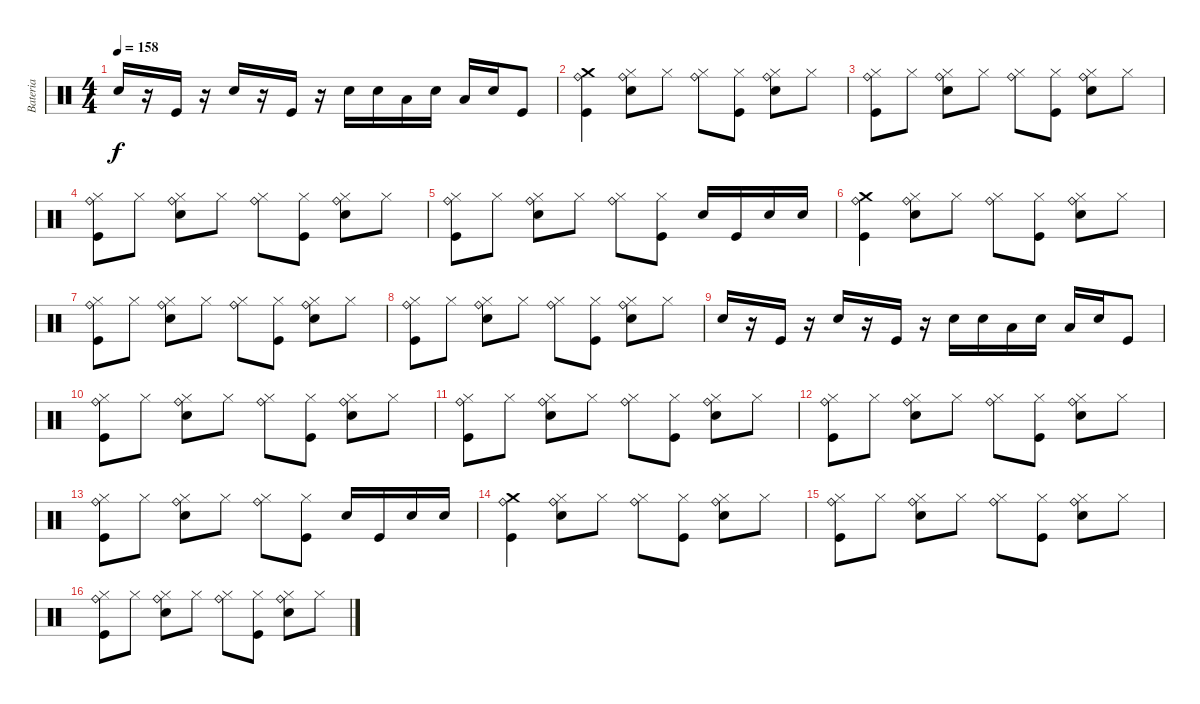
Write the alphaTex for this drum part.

\track ("Bateria" "Bateria") {instrument percussion}
\staff {score}
\articulation defaults
\ts (4 4)
\tempo 158
\clef neutral
\ks c "Electric Snare (hit)".16{dy f}
r.16 "Kick (hit)".16 r.16 "Electric Snare (hit)".16 r.16 "Kick (hit)".16 r.16 "Electric Snare (hit)".16 "Electric Snare (hit)".16 "Low Tom (hit)".16 "Electric Snare (hit)".16 "Low Tom (hit)".16 "Electric Snare (hit)".16 "Kick (hit)".8 |
("Kick (hit)" "Crash medium (hit)" "Ride (bell)").4 ("Electric Snare (hit)" "Hi-Hat (closed)" "Ride (bell)").8 "Hi-Hat (closed)".8 ("Hi-Hat (closed)" "Ride (bell)").8 ("Kick (hit)" "Hi-Hat (closed)").8 ("Electric Snare (hit)" "Hi-Hat (closed)" "Ride (bell)").8 "Hi-Hat (closed)".8 |
("Kick (hit)" "Hi-Hat (closed)" "Ride (bell)").8 "Hi-Hat (closed)".8 ("Electric Snare (hit)" "Hi-Hat (closed)" "Ride (bell)").8 "Hi-Hat (closed)".8 ("Hi-Hat (closed)" "Ride (bell)").8 ("Kick (hit)" "Hi-Hat (closed)").8 ("Electric Snare (hit)" "Hi-Hat (closed)" "Ride (bell)").8 "Hi-Hat (closed)".8 |
("Kick (hit)" "Hi-Hat (closed)" "Ride (bell)").8 "Hi-Hat (closed)".8 ("Electric Snare (hit)" "Hi-Hat (closed)" "Ride (bell)").8 "Hi-Hat (closed)".8 ("Hi-Hat (closed)" "Ride (bell)").8 ("Kick (hit)" "Hi-Hat (closed)").8 ("Electric Snare (hit)" "Hi-Hat (closed)" "Ride (bell)").8 "Hi-Hat (closed)".8 |
("Kick (hit)" "Hi-Hat (closed)" "Ride (bell)").8 "Hi-Hat (closed)".8 ("Electric Snare (hit)" "Hi-Hat (closed)" "Ride (bell)").8 "Hi-Hat (closed)".8 ("Hi-Hat (closed)" "Ride (bell)").8 ("Kick (hit)" "Hi-Hat (closed)").8 "Electric Snare (hit)".16 "Kick (hit)".16 "Snare (hit) 2".16 "Electric Snare (hit)".16 |
("Kick (hit)" "Crash medium (hit)" "Ride (bell)").4 ("Electric Snare (hit)" "Hi-Hat (closed)" "Ride (bell)").8 "Hi-Hat (closed)".8 ("Hi-Hat (closed)" "Ride (bell)").8 ("Kick (hit)" "Hi-Hat (closed)").8 ("Electric Snare (hit)" "Hi-Hat (closed)" "Ride (bell)").8 "Hi-Hat (closed)".8 |
("Kick (hit)" "Hi-Hat (closed)" "Ride (bell)").8 "Hi-Hat (closed)".8 ("Electric Snare (hit)" "Hi-Hat (closed)" "Ride (bell)").8 "Hi-Hat (closed)".8 ("Hi-Hat (closed)" "Ride (bell)").8 ("Kick (hit)" "Hi-Hat (closed)").8 ("Electric Snare (hit)" "Hi-Hat (closed)" "Ride (bell)").8 "Hi-Hat (closed)".8 |
("Kick (hit)" "Hi-Hat (closed)" "Ride (bell)").8 "Hi-Hat (closed)".8 ("Electric Snare (hit)" "Hi-Hat (closed)" "Ride (bell)").8 "Hi-Hat (closed)".8 ("Hi-Hat (closed)" "Ride (bell)").8 ("Kick (hit)" "Hi-Hat (closed)").8 ("Electric Snare (hit)" "Hi-Hat (closed)" "Ride (bell)").8 "Hi-Hat (closed)".8 |
"Electric Snare (hit)".16 r.16 "Kick (hit)".16 r.16 "Electric Snare (hit)".16 r.16 "Kick (hit)".16 r.16 "Electric Snare (hit)".16 "Electric Snare (hit)".16 "Low Tom (hit)".16 "Electric Snare (hit)".16 "Low Tom (hit)".16 "Electric Snare (hit)".16 "Kick (hit)".8 |
("Kick (hit)" "Hi-Hat (closed)" "Ride (bell)").8 "Hi-Hat (closed)".8 ("Electric Snare (hit)" "Hi-Hat (closed)" "Ride (bell)").8 "Hi-Hat (closed)".8 ("Hi-Hat (closed)" "Ride (bell)").8 ("Kick (hit)" "Hi-Hat (closed)").8 ("Electric Snare (hit)" "Hi-Hat (closed)" "Ride (bell)").8 "Hi-Hat (closed)".8 |
("Kick (hit)" "Hi-Hat (closed)" "Ride (bell)").8 "Hi-Hat (closed)".8 ("Electric Snare (hit)" "Hi-Hat (closed)" "Ride (bell)").8 "Hi-Hat (closed)".8 ("Hi-Hat (closed)" "Ride (bell)").8 ("Kick (hit)" "Hi-Hat (closed)").8 ("Electric Snare (hit)" "Hi-Hat (closed)" "Ride (bell)").8 "Hi-Hat (closed)".8 |
("Kick (hit)" "Hi-Hat (closed)" "Ride (bell)").8 "Hi-Hat (closed)".8 ("Electric Snare (hit)" "Hi-Hat (closed)" "Ride (bell)").8 "Hi-Hat (closed)".8 ("Hi-Hat (closed)" "Ride (bell)").8 ("Kick (hit)" "Hi-Hat (closed)").8 ("Electric Snare (hit)" "Hi-Hat (closed)" "Ride (bell)").8 "Hi-Hat (closed)".8 |
("Kick (hit)" "Hi-Hat (closed)" "Ride (bell)").8 "Hi-Hat (closed)".8 ("Electric Snare (hit)" "Hi-Hat (closed)" "Ride (bell)").8 "Hi-Hat (closed)".8 ("Hi-Hat (closed)" "Ride (bell)").8 ("Kick (hit)" "Hi-Hat (closed)").8 "Electric Snare (hit)".16 "Kick (hit)".16 "Snare (hit) 2".16 "Electric Snare (hit)".16 |
("Kick (hit)" "Crash medium (hit)" "Ride (bell)").4 ("Electric Snare (hit)" "Hi-Hat (closed)" "Ride (bell)").8 "Hi-Hat (closed)".8 ("Hi-Hat (closed)" "Ride (bell)").8 ("Kick (hit)" "Hi-Hat (closed)").8 ("Electric Snare (hit)" "Hi-Hat (closed)" "Ride (bell)").8 "Hi-Hat (closed)".8 |
("Kick (hit)" "Hi-Hat (closed)" "Ride (bell)").8 "Hi-Hat (closed)".8 ("Electric Snare (hit)" "Hi-Hat (closed)" "Ride (bell)").8 "Hi-Hat (closed)".8 ("Hi-Hat (closed)" "Ride (bell)").8 ("Kick (hit)" "Hi-Hat (closed)").8 ("Electric Snare (hit)" "Hi-Hat (closed)" "Ride (bell)").8 "Hi-Hat (closed)".8 |
("Kick (hit)" "Hi-Hat (closed)" "Ride (bell)").8 "Hi-Hat (closed)".8 ("Electric Snare (hit)" "Hi-Hat (closed)" "Ride (bell)").8 "Hi-Hat (closed)".8 ("Hi-Hat (closed)" "Ride (bell)").8 ("Kick (hit)" "Hi-Hat (closed)").8 ("Electric Snare (hit)" "Hi-Hat (closed)" "Ride (bell)").8 "Hi-Hat (closed)".8
